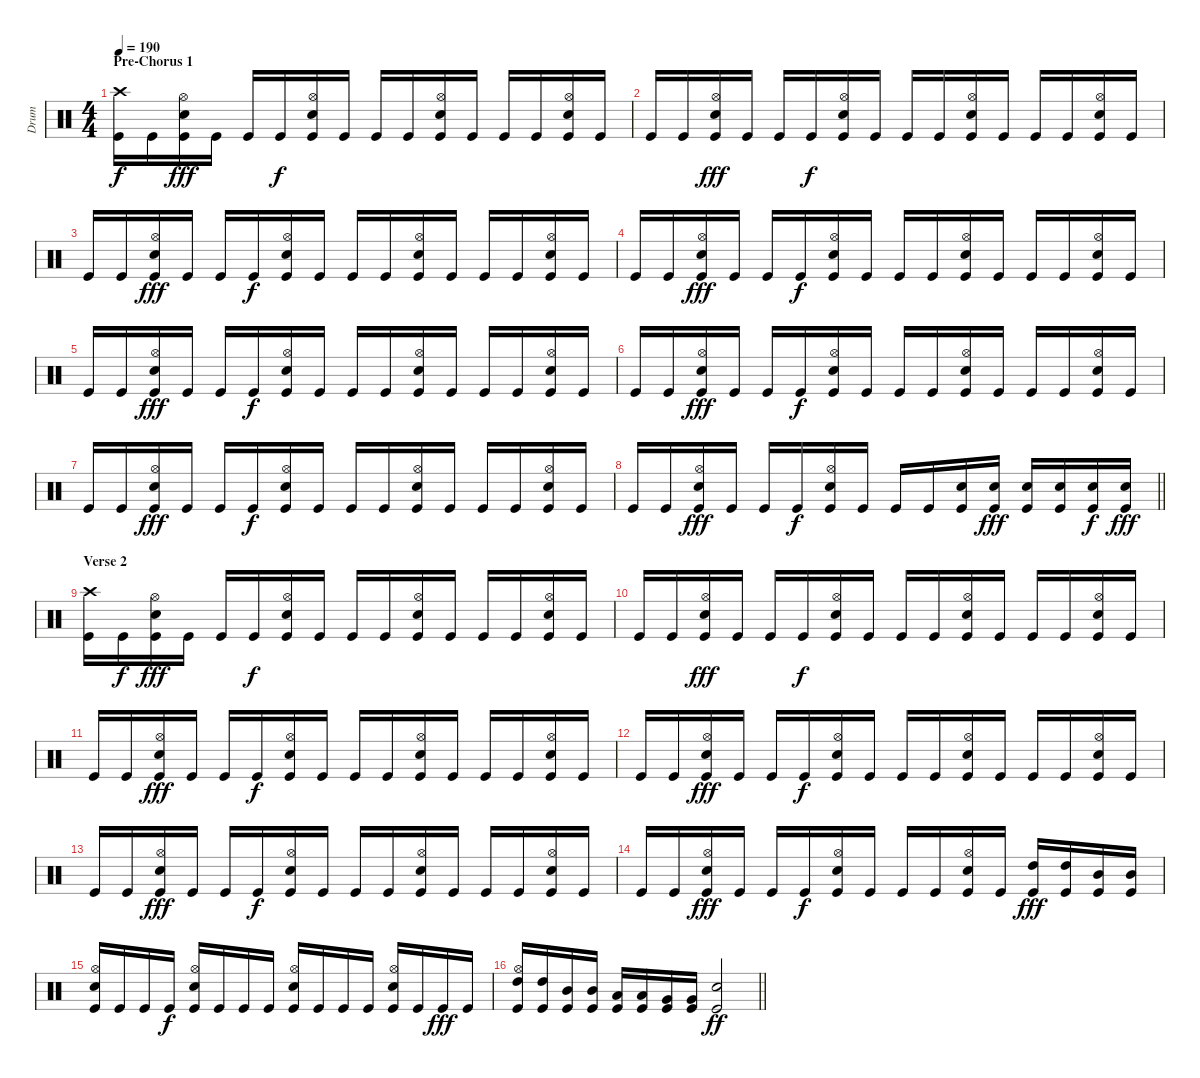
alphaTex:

\track ("Drum" "Drum") {instrument percussion}
\staff {score}
\articulation defaults
\ts (4 4)
\section ("" "Pre-Chorus 1")
\tempo 190
\clef neutral
\ks c
("Crash high (hit)" "Kick (hit)").16{dy f} "Kick (hit)".16 ("Hi-Hat (open)" "Snare (hit) 2" "Kick (hit)").16{dy fff} "Kick (hit)".16 "Kick (hit)".16 "Kick (hit)".16{dy f} ("Hi-Hat (open)" "Snare (hit) 2" "Kick (hit)").16 "Kick (hit)".16 "Kick (hit)".16 "Kick (hit)".16 ("Hi-Hat (open)" "Snare (hit) 2" "Kick (hit)").16 "Kick (hit)".16 "Kick (hit)".16 "Kick (hit)".16 ("Hi-Hat (open)" "Snare (hit) 2" "Kick (hit)").16 "Kick (hit)".16 |
"Kick (hit)".16 "Kick (hit)".16 ("Hi-Hat (open)" "Snare (hit) 2" "Kick (hit)").16{dy fff} "Kick (hit)".16 "Kick (hit)".16 "Kick (hit)".16{dy f} ("Hi-Hat (open)" "Snare (hit) 2" "Kick (hit)").16 "Kick (hit)".16 "Kick (hit)".16 "Kick (hit)".16 ("Hi-Hat (open)" "Snare (hit) 2" "Kick (hit)").16 "Kick (hit)".16 "Kick (hit)".16 "Kick (hit)".16 ("Hi-Hat (open)" "Snare (hit) 2" "Kick (hit)").16 "Kick (hit)".16 |
"Kick (hit)".16 "Kick (hit)".16 ("Hi-Hat (open)" "Snare (hit) 2" "Kick (hit)").16{dy fff} "Kick (hit)".16 "Kick (hit)".16 "Kick (hit)".16{dy f} ("Hi-Hat (open)" "Snare (hit) 2" "Kick (hit)").16 "Kick (hit)".16 "Kick (hit)".16 "Kick (hit)".16 ("Hi-Hat (open)" "Snare (hit) 2" "Kick (hit)").16 "Kick (hit)".16 "Kick (hit)".16 "Kick (hit)".16 ("Hi-Hat (open)" "Snare (hit) 2" "Kick (hit)").16 "Kick (hit)".16 |
"Kick (hit)".16 "Kick (hit)".16 ("Hi-Hat (open)" "Snare (hit) 2" "Kick (hit)").16{dy fff} "Kick (hit)".16 "Kick (hit)".16 "Kick (hit)".16{dy f} ("Hi-Hat (open)" "Snare (hit) 2" "Kick (hit)").16 "Kick (hit)".16 "Kick (hit)".16 "Kick (hit)".16 ("Hi-Hat (open)" "Snare (hit) 2" "Kick (hit)").16 "Kick (hit)".16 "Kick (hit)".16 "Kick (hit)".16 ("Hi-Hat (open)" "Snare (hit) 2" "Kick (hit)").16 "Kick (hit)".16 |
"Kick (hit)".16 "Kick (hit)".16 ("Hi-Hat (open)" "Snare (hit) 2" "Kick (hit)").16{dy fff} "Kick (hit)".16 "Kick (hit)".16 "Kick (hit)".16{dy f} ("Hi-Hat (open)" "Snare (hit) 2" "Kick (hit)").16 "Kick (hit)".16 "Kick (hit)".16 "Kick (hit)".16 ("Hi-Hat (open)" "Snare (hit) 2" "Kick (hit)").16 "Kick (hit)".16 "Kick (hit)".16 "Kick (hit)".16 ("Hi-Hat (open)" "Snare (hit) 2" "Kick (hit)").16 "Kick (hit)".16 |
"Kick (hit)".16 "Kick (hit)".16 ("Hi-Hat (open)" "Snare (hit) 2" "Kick (hit)").16{dy fff} "Kick (hit)".16 "Kick (hit)".16 "Kick (hit)".16{dy f} ("Hi-Hat (open)" "Snare (hit) 2" "Kick (hit)").16 "Kick (hit)".16 "Kick (hit)".16 "Kick (hit)".16 ("Hi-Hat (open)" "Snare (hit) 2" "Kick (hit)").16 "Kick (hit)".16 "Kick (hit)".16 "Kick (hit)".16 ("Hi-Hat (open)" "Snare (hit) 2" "Kick (hit)").16 "Kick (hit)".16 |
"Kick (hit)".16 "Kick (hit)".16 ("Hi-Hat (open)" "Snare (hit) 2" "Kick (hit)").16{dy fff} "Kick (hit)".16 "Kick (hit)".16 "Kick (hit)".16{dy f} ("Hi-Hat (open)" "Snare (hit) 2" "Kick (hit)").16 "Kick (hit)".16 "Kick (hit)".16 "Kick (hit)".16 ("Hi-Hat (open)" "Snare (hit) 2" "Kick (hit)").16 "Kick (hit)".16 "Kick (hit)".16 "Kick (hit)".16 ("Hi-Hat (open)" "Snare (hit) 2" "Kick (hit)").16 "Kick (hit)".16 |
\barLineRight lightlight "Kick (hit)".16 "Kick (hit)".16
("Hi-Hat (open)" "Snare (hit) 2" "Kick (hit)").16{dy fff} "Kick (hit)".16 "Kick (hit)".16 "Kick (hit)".16{dy f} ("Hi-Hat (open)" "Snare (hit) 2" "Kick (hit)").16 "Kick (hit)".16 "Kick (hit)".16 "Kick (hit)".16 ("Snare (hit) 2" "Kick (hit)").16 ("Snare (hit) 2" "Kick (hit)").16{dy fff} ("Snare (hit) 2" "Kick (hit)").16 ("Snare (hit) 2" "Kick (hit)").16 ("Snare (hit) 2" "Kick (hit)").16{dy f} ("Snare (hit) 2" "Kick (hit)").16{dy fff} |
\section ("" "Verse 2")
("Crash high (hit)" "Kick (hit)").16 "Kick (hit)".16{dy f} ("Hi-Hat (open)" "Snare (hit) 2" "Kick (hit)").16{dy fff} "Kick (hit)".16 "Kick (hit)".16 "Kick (hit)".16{dy f} ("Hi-Hat (open)" "Snare (hit) 2" "Kick (hit)").16 "Kick (hit)".16 "Kick (hit)".16 "Kick (hit)".16 ("Hi-Hat (open)" "Snare (hit) 2" "Kick (hit)").16 "Kick (hit)".16 "Kick (hit)".16 "Kick (hit)".16 ("Hi-Hat (open)" "Snare (hit) 2" "Kick (hit)").16 "Kick (hit)".16 |
"Kick (hit)".16 "Kick (hit)".16 ("Hi-Hat (open)" "Snare (hit) 2" "Kick (hit)").16{dy fff} "Kick (hit)".16 "Kick (hit)".16 "Kick (hit)".16{dy f} ("Hi-Hat (open)" "Snare (hit) 2" "Kick (hit)").16 "Kick (hit)".16 "Kick (hit)".16 "Kick (hit)".16 ("Hi-Hat (open)" "Snare (hit) 2" "Kick (hit)").16 "Kick (hit)".16 "Kick (hit)".16 "Kick (hit)".16 ("Hi-Hat (open)" "Snare (hit) 2" "Kick (hit)").16 "Kick (hit)".16 |
"Kick (hit)".16 "Kick (hit)".16 ("Hi-Hat (open)" "Snare (hit) 2" "Kick (hit)").16{dy fff} "Kick (hit)".16 "Kick (hit)".16 "Kick (hit)".16{dy f} ("Hi-Hat (open)" "Snare (hit) 2" "Kick (hit)").16 "Kick (hit)".16 "Kick (hit)".16 "Kick (hit)".16 ("Hi-Hat (open)" "Snare (hit) 2" "Kick (hit)").16 "Kick (hit)".16 "Kick (hit)".16 "Kick (hit)".16 ("Hi-Hat (open)" "Snare (hit) 2" "Kick (hit)").16 "Kick (hit)".16 |
"Kick (hit)".16 "Kick (hit)".16 ("Hi-Hat (open)" "Snare (hit) 2" "Kick (hit)").16{dy fff} "Kick (hit)".16 "Kick (hit)".16 "Kick (hit)".16{dy f} ("Hi-Hat (open)" "Snare (hit) 2" "Kick (hit)").16 "Kick (hit)".16 "Kick (hit)".16 "Kick (hit)".16 ("Hi-Hat (open)" "Snare (hit) 2" "Kick (hit)").16 "Kick (hit)".16 "Kick (hit)".16 "Kick (hit)".16 ("Hi-Hat (open)" "Snare (hit) 2" "Kick (hit)").16 "Kick (hit)".16 |
"Kick (hit)".16 "Kick (hit)".16 ("Hi-Hat (open)" "Snare (hit) 2" "Kick (hit)").16{dy fff} "Kick (hit)".16 "Kick (hit)".16 "Kick (hit)".16{dy f} ("Hi-Hat (open)" "Snare (hit) 2" "Kick (hit)").16 "Kick (hit)".16 "Kick (hit)".16 "Kick (hit)".16 ("Hi-Hat (open)" "Snare (hit) 2" "Kick (hit)").16 "Kick (hit)".16 "Kick (hit)".16 "Kick (hit)".16 ("Hi-Hat (open)" "Snare (hit) 2" "Kick (hit)").16 "Kick (hit)".16 |
"Kick (hit)".16 "Kick (hit)".16 ("Hi-Hat (open)" "Snare (hit) 2" "Kick (hit)").16{dy fff} "Kick (hit)".16 "Kick (hit)".16 "Kick (hit)".16{dy f} ("Hi-Hat (open)" "Snare (hit) 2" "Kick (hit)").16 "Kick (hit)".16 "Kick (hit)".16 "Kick (hit)".16 ("Hi-Hat (open)" "Snare (hit) 2" "Kick (hit)").16 "Kick (hit)".16 ("High Tom (hit)" "Kick (hit)").16{dy fff} ("High Tom (hit)" "Kick (hit)").16 ("Mid Tom (hit)" "Kick (hit)").16 ("Mid Tom (hit)" "Kick (hit)").16 |
("Hi-Hat (open)" "Snare (hit) 2" "Kick (hit)").16 "Kick (hit)".16 "Kick (hit)".16 "Kick (hit)".16{dy f} ("Hi-Hat (open)" "Snare (hit) 2" "Kick (hit)").16 "Kick (hit)".16 "Kick (hit)".16 "Kick (hit)".16 ("Hi-Hat (open)" "Snare (hit) 2" "Kick (hit)").16 "Kick (hit)".16 "Kick (hit)".16 "Kick (hit)".16 ("Hi-Hat (open)" "Snare (hit) 2" "Kick (hit)").16 "Kick (hit)".16 "Kick (hit)".16{dy fff} "Kick (hit)".16 |
\barLineRight lightlight
("Hi-Hat (open)" "High Tom (hit)" "Kick (hit)").16 ("High Tom (hit)" "Kick (hit)").16 ("Mid Tom (hit)" "Kick (hit)").16 ("Mid Tom (hit)" "Kick (hit)").16 ("Low Tom (hit)" "Kick (hit)").16 ("Low Tom (hit)" "Kick (hit)").16 ("Very Low Tom (hit)" "Kick (hit)").16 ("Very Low Tom (hit)" "Kick (hit)").16 ("Snare (hit) 2" "Kick (hit)").2{dy ff}
